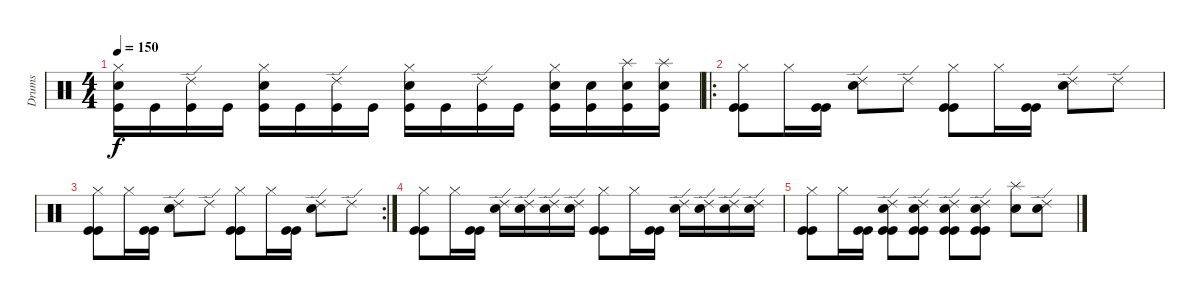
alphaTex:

\track ("Drums" "Drums") {instrument percussion}
\staff {score}
\articulation defaults
\ts (4 4)
\tempo 150
\clef neutral
\ks c
("Hi-Hat (closed)" "Snare (hit) 2" "Kick (hit)").16{dy f} "Kick (hit)".16 ("Ride (edge) 2" "Kick (hit)").16 "Kick (hit)".16 ("Hi-Hat (closed)" "Snare (hit) 2" "Kick (hit)").16 "Kick (hit)".16 ("Ride (edge) 2" "Kick (hit)").16 "Kick (hit)".16 ("Hi-Hat (closed)" "Snare (hit) 2" "Kick (hit)").16 "Kick (hit)".16 ("Ride (edge) 2" "Kick (hit)").16 "Kick (hit)".16 ("Hi-Hat (closed)" "Snare (hit) 2" "Kick (hit)").16 ("Snare (hit) 2" "Kick (hit)").16 ("Splash (hit)" "Snare (hit) 2" "Kick (hit)").16 ("Splash (hit)" "Snare (hit) 2" "Kick (hit)").16 |
\ro
("Hi-Hat (closed)" "Kick (hit)" "Kick (hit)").8 "Hi-Hat (closed)".16 ("Kick (hit)" "Kick (hit)").16 ("Ride (edge) 2" "Snare (hit) 2").8 "Ride (edge) 2".8 ("Hi-Hat (closed)" "Kick (hit)" "Kick (hit)").8 "Hi-Hat (closed)".16 ("Kick (hit)" "Kick (hit)").16 ("Ride (edge) 2" "Snare (hit) 2").8 "Ride (edge) 2".8 |
\rc 2
("Hi-Hat (closed)" "Kick (hit)" "Kick (hit)").8 "Hi-Hat (closed)".16 ("Kick (hit)" "Kick (hit)").16 ("Ride (edge) 2" "Snare (hit) 2").8 "Ride (edge) 2".8 ("Hi-Hat (closed)" "Kick (hit)" "Kick (hit)").8 "Hi-Hat (closed)".16 ("Kick (hit)" "Kick (hit)").16 ("Ride (edge) 2" "Snare (hit) 2").8 "Ride (edge) 2".8 |
("Hi-Hat (closed)" "Kick (hit)" "Kick (hit)").8 "Hi-Hat (closed)".16 ("Kick (hit)" "Kick (hit)").16 ("Ride (edge) 2" "Snare (hit) 2").16 ("Ride (edge) 2" "Snare (hit) 2").16 ("Ride (edge) 2" "Snare (hit) 2").16 ("Ride (edge) 2" "Snare (hit) 2").16 ("Hi-Hat (closed)" "Kick (hit)" "Kick (hit)").8 "Hi-Hat (closed)".16 ("Kick (hit)" "Kick (hit)").16 ("Ride (edge) 2" "Snare (hit) 2").16 ("Ride (edge) 2" "Snare (hit) 2").16 ("Ride (edge) 2" "Snare (hit) 2").16 ("Ride (edge) 2" "Snare (hit) 2").16 |
("Hi-Hat (closed)" "Kick (hit)" "Kick (hit)").8 "Hi-Hat (closed)".16 ("Kick (hit)" "Kick (hit)").16 ("Ride (edge) 2" "Snare (hit) 2" "Kick (hit)" "Kick (hit)").8 ("Ride (edge) 2" "Snare (hit) 2" "Kick (hit)" "Kick (hit)").8 ("Ride (edge) 2" "Snare (hit) 2" "Kick (hit)" "Kick (hit)").8 ("Ride (edge) 2" "Snare (hit) 2" "Kick (hit)" "Kick (hit)").8 ("Splash (hit)" "Snare (hit) 2").8 ("Ride (edge) 2" "Snare (hit) 2").8
